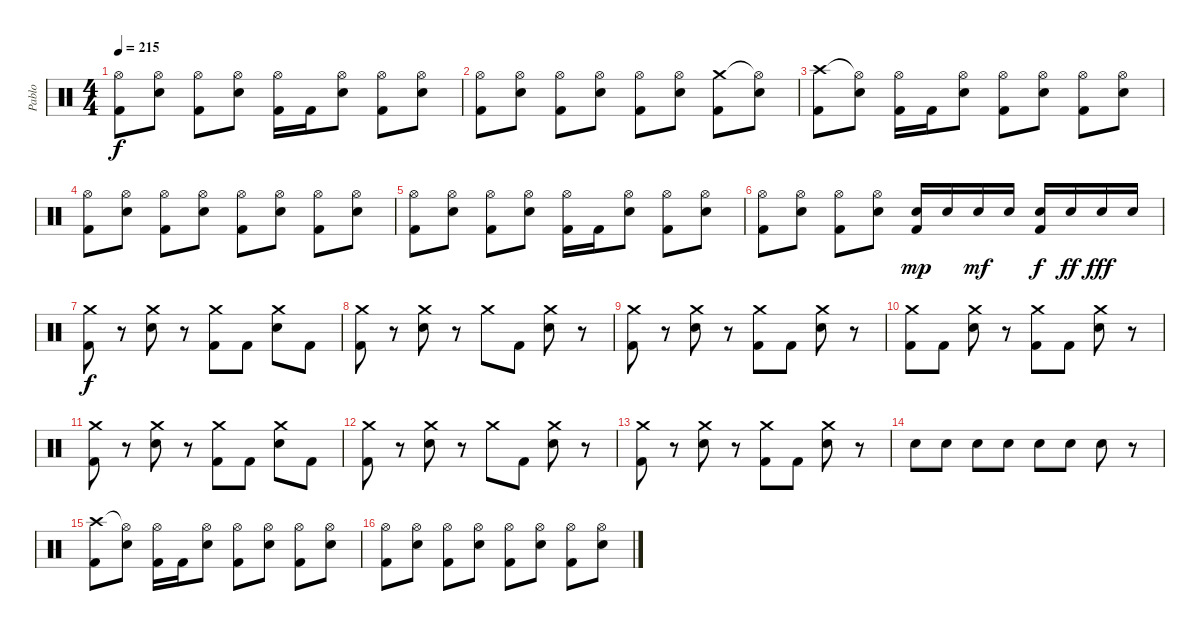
\track ("Pablo" "Pablo") {instrument percussion}
\staff {score}
\articulation defaults
\ts (4 4)
\tempo 215
\clef neutral
\ks c
("Hi-Hat (open)" "Kick (hit) 2").8{dy f} ("Hi-Hat (open)" "Electric Snare (hit)").8 ("Hi-Hat (open)" "Kick (hit) 2").8 ("Hi-Hat (open)" "Electric Snare (hit)").8 ("Hi-Hat (open)" "Kick (hit) 2").16 "Kick (hit) 2".16 ("Hi-Hat (open)" "Electric Snare (hit)").8 ("Hi-Hat (open)" "Kick (hit) 2").8 ("Hi-Hat (open)" "Electric Snare (hit)").8 |
("Hi-Hat (open)" "Kick (hit) 2").8 ("Hi-Hat (open)" "Electric Snare (hit)").8 ("Hi-Hat (open)" "Kick (hit) 2").8 ("Hi-Hat (open)" "Electric Snare (hit)").8 ("Hi-Hat (open)" "Kick (hit) 2").8 ("Hi-Hat (open)" "Electric Snare (hit)").8 ("Crash medium (hit)" "Kick (hit) 2").8 ("Hi-Hat (open)"{t} "Electric Snare (hit)").8 |
("Crash high (hit)" "Kick (hit) 2").8 ("Hi-Hat (open)"{t} "Electric Snare (hit)").8 ("Hi-Hat (open)" "Kick (hit) 2").16 "Kick (hit) 2".16 ("Hi-Hat (open)" "Electric Snare (hit)").8 ("Hi-Hat (open)" "Kick (hit) 2").8 ("Hi-Hat (open)" "Electric Snare (hit)").8 ("Hi-Hat (open)" "Kick (hit) 2").8 ("Hi-Hat (open)" "Electric Snare (hit)").8 |
("Hi-Hat (open)" "Kick (hit) 2").8 ("Hi-Hat (open)" "Electric Snare (hit)").8 ("Hi-Hat (open)" "Kick (hit) 2").8 ("Hi-Hat (open)" "Electric Snare (hit)").8 ("Hi-Hat (open)" "Kick (hit) 2").8 ("Hi-Hat (open)" "Electric Snare (hit)").8 ("Hi-Hat (open)" "Kick (hit) 2").8 ("Hi-Hat (open)" "Electric Snare (hit)").8 |
("Hi-Hat (open)" "Kick (hit) 2").8 ("Hi-Hat (open)" "Electric Snare (hit)").8 ("Hi-Hat (open)" "Kick (hit) 2").8 ("Hi-Hat (open)" "Electric Snare (hit)").8 ("Hi-Hat (open)" "Kick (hit) 2").16 "Kick (hit) 2".16 ("Hi-Hat (open)" "Electric Snare (hit)").8 ("Hi-Hat (open)" "Kick (hit) 2").8 ("Hi-Hat (open)" "Electric Snare (hit)").8 |
("Hi-Hat (open)" "Kick (hit) 2").8 ("Hi-Hat (open)" "Electric Snare (hit)").8 ("Hi-Hat (open)" "Kick (hit) 2").8 ("Hi-Hat (open)" "Electric Snare (hit)").8 ("Kick (hit) 2" "Electric Snare (hit)").16{dy mp} "Electric Snare (hit)".16 "Electric Snare (hit)".16{dy mf} "Electric Snare (hit)".16 ("Kick (hit) 2" "Electric Snare (hit)").16{dy f} "Electric Snare (hit)".16{dy ff} "Electric Snare (hit)".16{dy fff} "Electric Snare (hit)".16 |
("Crash medium (hit)" "Kick (hit) 2").8{dy f} r.8 ("Crash medium (hit)" "Electric Snare (hit)").8 r.8 ("Crash medium (hit)" "Kick (hit) 2").8 "Kick (hit) 2".8 ("Crash medium (hit)" "Electric Snare (hit)").8 "Kick (hit) 2".8 |
("Crash medium (hit)" "Kick (hit) 2").8 r.8 ("Crash medium (hit)" "Electric Snare (hit)").8 r.8 "Crash medium (hit)".8 "Kick (hit) 2".8 ("Crash medium (hit)" "Electric Snare (hit)").8 r.8 |
("Crash medium (hit)" "Kick (hit) 2").8 r.8 ("Crash medium (hit)" "Electric Snare (hit)").8 r.8 ("Crash medium (hit)" "Kick (hit) 2").8 "Kick (hit) 2".8 ("Crash medium (hit)" "Electric Snare (hit)").8 r.8 |
("Crash medium (hit)" "Kick (hit) 2").8 "Kick (hit) 2".8 ("Crash medium (hit)" "Electric Snare (hit)").8 r.8 ("Crash medium (hit)" "Kick (hit) 2").8 "Kick (hit) 2".8 ("Crash medium (hit)" "Electric Snare (hit)").8 r.8 |
("Crash medium (hit)" "Kick (hit) 2").8 r.8 ("Crash medium (hit)" "Electric Snare (hit)").8 r.8 ("Crash medium (hit)" "Kick (hit) 2").8 "Kick (hit) 2".8 ("Crash medium (hit)" "Electric Snare (hit)").8 "Kick (hit) 2".8 |
("Crash medium (hit)" "Kick (hit) 2").8 r.8 ("Crash medium (hit)" "Electric Snare (hit)").8 r.8 "Crash medium (hit)".8 "Kick (hit) 2".8 ("Crash medium (hit)" "Electric Snare (hit)").8 r.8 |
("Crash medium (hit)" "Kick (hit) 2").8 r.8 ("Crash medium (hit)" "Electric Snare (hit)").8 r.8 ("Crash medium (hit)" "Kick (hit) 2").8 "Kick (hit) 2".8 ("Crash medium (hit)" "Electric Snare (hit)").8 r.8 |
"Electric Snare (hit)".8 "Electric Snare (hit)".8 "Electric Snare (hit)".8 "Electric Snare (hit)".8 "Electric Snare (hit)".8 "Electric Snare (hit)".8 "Electric Snare (hit)".8 r.8 |
("Crash high (hit)" "Kick (hit) 2").8 ("Hi-Hat (open)"{t} "Electric Snare (hit)").8 ("Hi-Hat (open)" "Kick (hit) 2").16 "Kick (hit) 2".16 ("Hi-Hat (open)" "Electric Snare (hit)").8 ("Hi-Hat (open)" "Kick (hit) 2").8 ("Hi-Hat (open)" "Electric Snare (hit)").8 ("Hi-Hat (open)" "Kick (hit) 2").8 ("Hi-Hat (open)" "Electric Snare (hit)").8 |
("Hi-Hat (open)" "Kick (hit) 2").8 ("Hi-Hat (open)" "Electric Snare (hit)").8 ("Hi-Hat (open)" "Kick (hit) 2").8 ("Hi-Hat (open)" "Electric Snare (hit)").8 ("Hi-Hat (open)" "Kick (hit) 2").8 ("Hi-Hat (open)" "Electric Snare (hit)").8 ("Hi-Hat (open)" "Kick (hit) 2").8 ("Hi-Hat (open)" "Electric Snare (hit)").8
